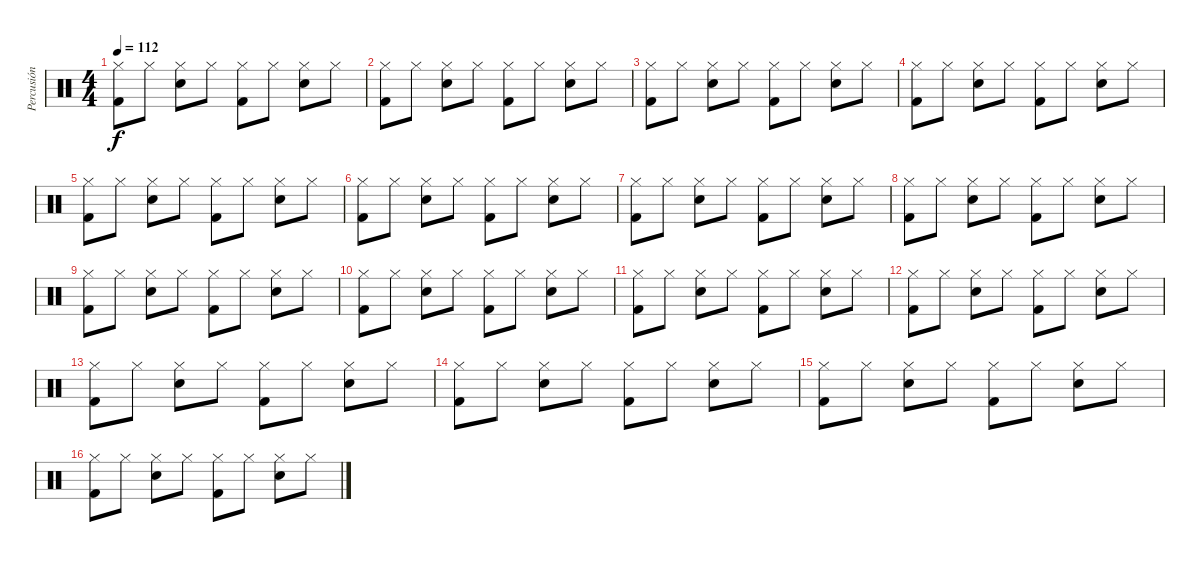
\track ("Percusión" "Percusión") {instrument percussion}
\staff {score}
\articulation defaults
\ts (4 4)
\tempo 112
\clef neutral
\ks c
("Hi-Hat (closed)" "Kick (hit) 2").8{dy f} "Hi-Hat (closed)".8 ("Hi-Hat (closed)" "Snare (hit) 2").8 "Hi-Hat (closed)".8 ("Hi-Hat (closed)" "Kick (hit) 2").8 "Hi-Hat (closed)".8 ("Hi-Hat (closed)" "Snare (hit) 2").8 "Hi-Hat (closed)".8 |
("Hi-Hat (closed)" "Kick (hit) 2").8 "Hi-Hat (closed)".8 ("Hi-Hat (closed)" "Snare (hit) 2").8 "Hi-Hat (closed)".8 ("Hi-Hat (closed)" "Kick (hit) 2").8 "Hi-Hat (closed)".8 ("Hi-Hat (closed)" "Snare (hit) 2").8 "Hi-Hat (closed)".8 |
("Hi-Hat (closed)" "Kick (hit) 2").8 "Hi-Hat (closed)".8 ("Hi-Hat (closed)" "Snare (hit) 2").8 "Hi-Hat (closed)".8 ("Hi-Hat (closed)" "Kick (hit) 2").8 "Hi-Hat (closed)".8 ("Hi-Hat (closed)" "Snare (hit) 2").8 "Hi-Hat (closed)".8 |
("Hi-Hat (closed)" "Kick (hit) 2").8 "Hi-Hat (closed)".8 ("Hi-Hat (closed)" "Snare (hit) 2").8 "Hi-Hat (closed)".8 ("Hi-Hat (closed)" "Kick (hit) 2").8 "Hi-Hat (closed)".8 ("Hi-Hat (closed)" "Snare (hit) 2").8 "Hi-Hat (closed)".8 |
("Hi-Hat (closed)" "Kick (hit) 2").8 "Hi-Hat (closed)".8 ("Hi-Hat (closed)" "Snare (hit) 2").8 "Hi-Hat (closed)".8 ("Hi-Hat (closed)" "Kick (hit) 2").8 "Hi-Hat (closed)".8 ("Hi-Hat (closed)" "Snare (hit) 2").8 "Hi-Hat (closed)".8 |
("Hi-Hat (closed)" "Kick (hit) 2").8 "Hi-Hat (closed)".8 ("Hi-Hat (closed)" "Snare (hit) 2").8 "Hi-Hat (closed)".8 ("Hi-Hat (closed)" "Kick (hit) 2").8 "Hi-Hat (closed)".8 ("Hi-Hat (closed)" "Snare (hit) 2").8 "Hi-Hat (closed)".8 |
("Hi-Hat (closed)" "Kick (hit) 2").8 "Hi-Hat (closed)".8 ("Hi-Hat (closed)" "Snare (hit) 2").8 "Hi-Hat (closed)".8 ("Hi-Hat (closed)" "Kick (hit) 2").8 "Hi-Hat (closed)".8 ("Hi-Hat (closed)" "Snare (hit) 2").8 "Hi-Hat (closed)".8 |
("Hi-Hat (closed)" "Kick (hit) 2").8 "Hi-Hat (closed)".8 ("Hi-Hat (closed)" "Snare (hit) 2").8 "Hi-Hat (closed)".8 ("Hi-Hat (closed)" "Kick (hit) 2").8 "Hi-Hat (closed)".8 ("Hi-Hat (closed)" "Snare (hit) 2").8 "Hi-Hat (closed)".8 |
("Hi-Hat (closed)" "Kick (hit) 2").8 "Hi-Hat (closed)".8 ("Hi-Hat (closed)" "Snare (hit) 2").8 "Hi-Hat (closed)".8 ("Hi-Hat (closed)" "Kick (hit) 2").8 "Hi-Hat (closed)".8 ("Hi-Hat (closed)" "Snare (hit) 2").8 "Hi-Hat (closed)".8 |
("Hi-Hat (closed)" "Kick (hit) 2").8 "Hi-Hat (closed)".8 ("Hi-Hat (closed)" "Snare (hit) 2").8 "Hi-Hat (closed)".8 ("Hi-Hat (closed)" "Kick (hit) 2").8 "Hi-Hat (closed)".8 ("Hi-Hat (closed)" "Snare (hit) 2").8 "Hi-Hat (closed)".8 |
("Hi-Hat (closed)" "Kick (hit) 2").8 "Hi-Hat (closed)".8 ("Hi-Hat (closed)" "Snare (hit) 2").8 "Hi-Hat (closed)".8 ("Hi-Hat (closed)" "Kick (hit) 2").8 "Hi-Hat (closed)".8 ("Hi-Hat (closed)" "Snare (hit) 2").8 "Hi-Hat (closed)".8 |
("Hi-Hat (closed)" "Kick (hit) 2").8 "Hi-Hat (closed)".8 ("Hi-Hat (closed)" "Snare (hit) 2").8 "Hi-Hat (closed)".8 ("Hi-Hat (closed)" "Kick (hit) 2").8 "Hi-Hat (closed)".8 ("Hi-Hat (closed)" "Snare (hit) 2").8 "Hi-Hat (closed)".8 |
("Hi-Hat (closed)" "Kick (hit) 2").8 "Hi-Hat (closed)".8 ("Hi-Hat (closed)" "Snare (hit) 2").8 "Hi-Hat (closed)".8 ("Hi-Hat (closed)" "Kick (hit) 2").8 "Hi-Hat (closed)".8 ("Hi-Hat (closed)" "Snare (hit) 2").8 "Hi-Hat (closed)".8 |
("Hi-Hat (closed)" "Kick (hit) 2").8 "Hi-Hat (closed)".8 ("Hi-Hat (closed)" "Snare (hit) 2").8 "Hi-Hat (closed)".8 ("Hi-Hat (closed)" "Kick (hit) 2").8 "Hi-Hat (closed)".8 ("Hi-Hat (closed)" "Snare (hit) 2").8 "Hi-Hat (closed)".8 |
("Hi-Hat (closed)" "Kick (hit) 2").8 "Hi-Hat (closed)".8 ("Hi-Hat (closed)" "Snare (hit) 2").8 "Hi-Hat (closed)".8 ("Hi-Hat (closed)" "Kick (hit) 2").8 "Hi-Hat (closed)".8 ("Hi-Hat (closed)" "Snare (hit) 2").8 "Hi-Hat (closed)".8 |
("Hi-Hat (closed)" "Kick (hit) 2").8 "Hi-Hat (closed)".8 ("Hi-Hat (closed)" "Snare (hit) 2").8 "Hi-Hat (closed)".8 ("Hi-Hat (closed)" "Kick (hit) 2").8 "Hi-Hat (closed)".8 ("Hi-Hat (closed)" "Snare (hit) 2").8 "Hi-Hat (closed)".8
